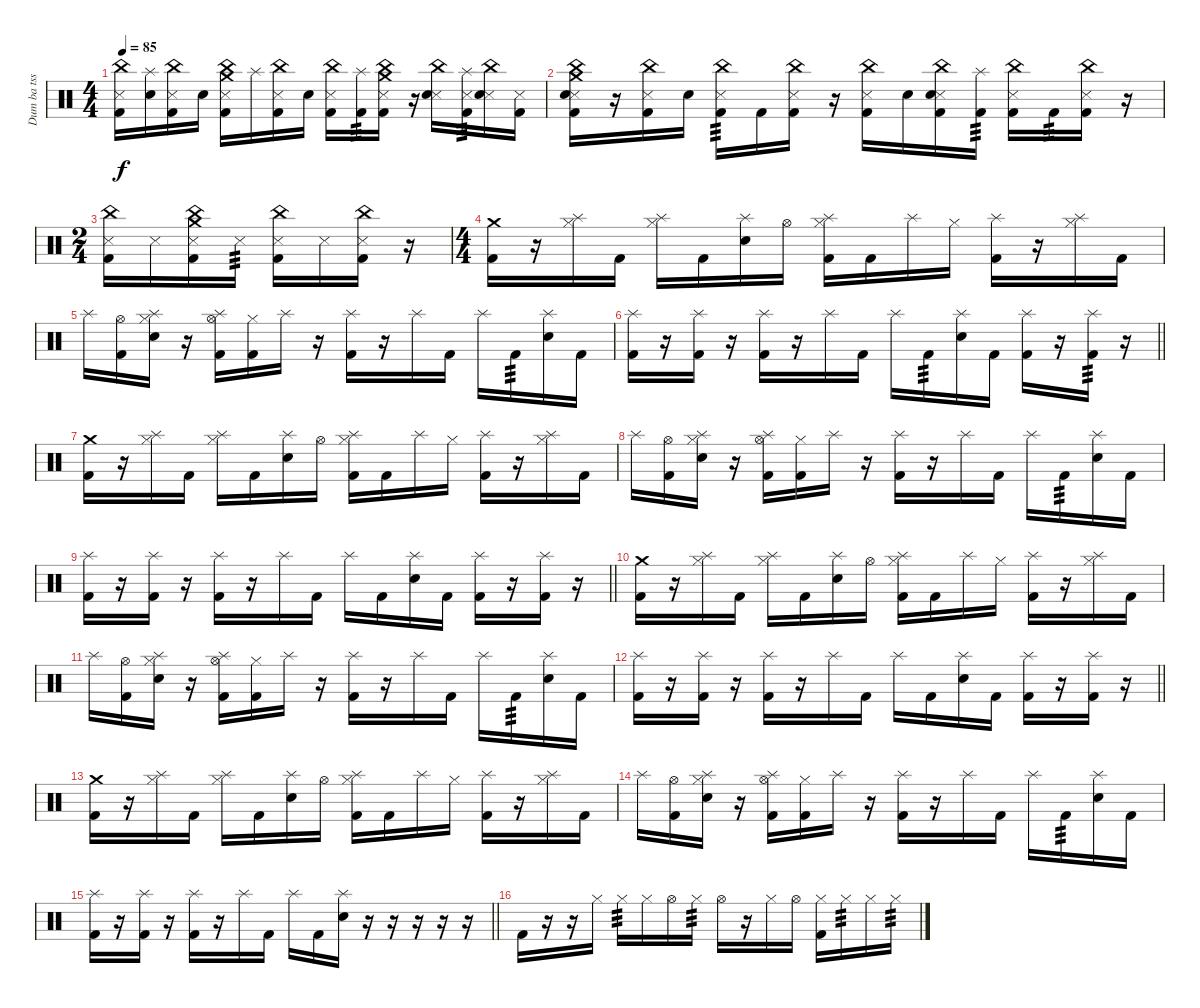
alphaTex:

\track ("Dum ba tss" "Dum ba tss") {instrument percussion}
\staff {score}
\articulation defaults
\ts (4 4)
\tempo 85
\clef neutral
\ks c
("China (hit)" "Snare (side stick) 3" "Kick (hit) 2").16{dy f} ("Splash (hit)" "Electric Snare (hit)").16 ("China (hit)" "Snare (side stick) 3" "Kick (hit) 2").16 "Electric Snare (hit)".16 ("Crash medium (hit)" "China (hit)" "Snare (side stick) 3" "Kick (hit) 2").16 "Splash (hit)".16 ("China (hit)" "Snare (side stick) 3" "Kick (hit) 2").16 "Electric Snare (hit)".16 ("China (hit)" "Snare (side stick) 3" "Kick (hit) 2").16 ("Splash (hit)" "Kick (hit) 2").16{tp 3} ("Crash medium (hit)" "China (hit)" "Snare (side stick) 3" "Kick (hit) 2").16 r.16 ("China (hit)" "Snare (side stick) 3" "Electric Snare (hit)").16 ("Splash (hit)" "Snare (side stick) 3" "Kick (hit) 2").16{tp 3} ("China (hit)" "Snare (side stick) 3" "Electric Snare (hit)").16 ("Snare (side stick) 3" "Kick (hit) 2").16 |
("Snare (side stick) 3" "China (hit)" "Crash medium (hit)" "Electric Snare (hit)" "Kick (hit) 2").16 r.16 ("Snare (side stick) 3" "China (hit)" "Kick (hit) 2").16 "Electric Snare (hit)".16 ("Snare (side stick) 3" "China (hit)" "Kick (hit) 2").16{tp 3} "Kick (hit) 2".16 ("Snare (side stick) 3" "China (hit)" "Kick (hit) 2").16 r.16 ("Snare (side stick) 3" "China (hit)" "Kick (hit) 2").16 "Electric Snare (hit)".16 ("Snare (side stick) 3" "China (hit)" "Electric Snare (hit)" "Kick (hit) 2").16 ("Splash (hit)" "Kick (hit) 2").16{tp 3} ("Snare (side stick) 3" "China (hit)" "Kick (hit) 2").16 "Kick (hit) 2".16{tp 3} ("Snare (side stick) 3" "China (hit)" "Kick (hit) 2").16 r.16 |
\ts (2 4)
("Snare (side stick) 3" "China (hit)" "Kick (hit) 2").16 "Snare (side stick) 3".16 ("Snare (side stick) 3" "China (hit)" "Crash medium (hit)" "Kick (hit) 2").16 "Snare (side stick) 3".16{tp 3} ("Snare (side stick) 3" "China (hit)" "Kick (hit) 2").16 "Snare (side stick) 3".16 ("Snare (side stick) 3" "China (hit)" "Kick (hit) 2").16 r.16 |
\ts (4 4)
("Crash medium (hit)" "Kick (hit) 2").16 r.16 ("Hi-Hat (closed)" "Splash (hit)").16 "Kick (hit) 2".16 ("Hi-Hat (closed)" "Splash (hit)").16 "Kick (hit) 2".16 ("Splash (hit)" "Electric Snare (hit)").16 "Hi-Hat (open)".16 ("Hi-Hat (closed)" "Splash (hit)" "Kick (hit) 2").16 "Kick (hit) 2".16 "Splash (hit)".16 "Hi-Hat (closed)".16 ("Splash (hit)" "Kick (hit) 2").16 r.16 ("Hi-Hat (closed)" "Splash (hit)").16 "Kick (hit) 2".16 |
"Splash (hit)".16 ("Hi-Hat (open)" "Kick (hit) 2").16 ("Hi-Hat (closed)" "Splash (hit)" "Electric Snare (hit)").16 r.16 ("Hi-Hat (open)" "Splash (hit)" "Kick (hit) 2").16 ("Hi-Hat (closed)" "Kick (hit) 2").16 "Splash (hit)".16 r.16 ("Splash (hit)" "Kick (hit) 2").16 r.16 "Splash (hit)".16 "Kick (hit) 2".16 "Splash (hit)".16 "Kick (hit) 2".16{tp 3} ("Splash (hit)" "Electric Snare (hit)").16 "Kick (hit) 2".16 |
\barLineRight lightlight
("Splash (hit)" "Kick (hit) 2").16 r.16 ("Splash (hit)" "Kick (hit) 2").16 r.16 ("Splash (hit)" "Kick (hit) 2").16 r.16 "Splash (hit)".16 "Kick (hit) 2".16 "Splash (hit)".16 "Kick (hit) 2".16{tp 3} ("Splash (hit)" "Electric Snare (hit)").16 "Kick (hit) 2".16 ("Splash (hit)" "Kick (hit) 2").16 r.16 ("Splash (hit)" "Kick (hit) 2").16{tp 3} r.16 |
\section ("" "")
("Crash medium (hit)" "Kick (hit) 2").16 r.16 ("Hi-Hat (closed)" "Splash (hit)").16 "Kick (hit) 2".16 ("Hi-Hat (closed)" "Splash (hit)").16 "Kick (hit) 2".16 ("Splash (hit)" "Electric Snare (hit)").16 "Hi-Hat (open)".16 ("Hi-Hat (closed)" "Splash (hit)" "Kick (hit) 2").16 "Kick (hit) 2".16 "Splash (hit)".16 "Hi-Hat (closed)".16 ("Splash (hit)" "Kick (hit) 2").16 r.16 ("Hi-Hat (closed)" "Splash (hit)").16 "Kick (hit) 2".16 |
"Splash (hit)".16 ("Hi-Hat (open)" "Kick (hit) 2").16 ("Hi-Hat (closed)" "Splash (hit)" "Electric Snare (hit)").16 r.16 ("Hi-Hat (open)" "Splash (hit)" "Kick (hit) 2").16 ("Hi-Hat (closed)" "Kick (hit) 2").16 "Splash (hit)".16 r.16 ("Splash (hit)" "Kick (hit) 2").16 r.16 "Splash (hit)".16 "Kick (hit) 2".16 "Splash (hit)".16 "Kick (hit) 2".16{tp 3} ("Splash (hit)" "Electric Snare (hit)").16 "Kick (hit) 2".16 |
\barLineRight lightlight
("Splash (hit)" "Kick (hit) 2").16 r.16 ("Splash (hit)" "Kick (hit) 2").16 r.16 ("Splash (hit)" "Kick (hit) 2").16 r.16 "Splash (hit)".16 "Kick (hit) 2".16 "Splash (hit)".16 "Kick (hit) 2".16 ("Splash (hit)" "Electric Snare (hit)").16 "Kick (hit) 2".16 ("Splash (hit)" "Kick (hit) 2").16 r.16 ("Splash (hit)" "Kick (hit) 2").16 r.16 |
\section ("" "")
("Crash medium (hit)" "Kick (hit) 2").16 r.16 ("Hi-Hat (closed)" "Splash (hit)").16 "Kick (hit) 2".16 ("Hi-Hat (closed)" "Splash (hit)").16 "Kick (hit) 2".16 ("Splash (hit)" "Electric Snare (hit)").16 "Hi-Hat (open)".16 ("Hi-Hat (closed)" "Splash (hit)" "Kick (hit) 2").16 "Kick (hit) 2".16 "Splash (hit)".16 "Hi-Hat (closed)".16 ("Splash (hit)" "Kick (hit) 2").16 r.16 ("Hi-Hat (closed)" "Splash (hit)").16 "Kick (hit) 2".16 |
"Splash (hit)".16 ("Hi-Hat (open)" "Kick (hit) 2").16 ("Hi-Hat (closed)" "Splash (hit)" "Electric Snare (hit)").16 r.16 ("Hi-Hat (open)" "Splash (hit)" "Kick (hit) 2").16 ("Hi-Hat (closed)" "Kick (hit) 2").16 "Splash (hit)".16 r.16 ("Splash (hit)" "Kick (hit) 2").16 r.16 "Splash (hit)".16 "Kick (hit) 2".16 "Splash (hit)".16 "Kick (hit) 2".16{tp 3} ("Splash (hit)" "Electric Snare (hit)").16 "Kick (hit) 2".16 |
\barLineRight lightlight
("Splash (hit)" "Kick (hit) 2").16 r.16 ("Splash (hit)" "Kick (hit) 2").16 r.16 ("Splash (hit)" "Kick (hit) 2").16 r.16 "Splash (hit)".16 "Kick (hit) 2".16 "Splash (hit)".16 "Kick (hit) 2".16 ("Splash (hit)" "Electric Snare (hit)").16 "Kick (hit) 2".16 ("Splash (hit)" "Kick (hit) 2").16 r.16 ("Splash (hit)" "Kick (hit) 2").16 r.16 |
("Crash medium (hit)" "Kick (hit) 2").16 r.16 ("Hi-Hat (closed)" "Splash (hit)").16 "Kick (hit) 2".16 ("Hi-Hat (closed)" "Splash (hit)").16 "Kick (hit) 2".16 ("Splash (hit)" "Electric Snare (hit)").16 "Hi-Hat (open)".16 ("Hi-Hat (closed)" "Splash (hit)" "Kick (hit) 2").16 "Kick (hit) 2".16 "Splash (hit)".16 "Hi-Hat (closed)".16 ("Splash (hit)" "Kick (hit) 2").16 r.16 ("Hi-Hat (closed)" "Splash (hit)").16 "Kick (hit) 2".16 |
"Splash (hit)".16 ("Hi-Hat (open)" "Kick (hit) 2").16 ("Hi-Hat (closed)" "Splash (hit)" "Electric Snare (hit)").16 r.16 ("Hi-Hat (open)" "Splash (hit)" "Kick (hit) 2").16 ("Hi-Hat (closed)" "Kick (hit) 2").16 "Splash (hit)".16 r.16 ("Splash (hit)" "Kick (hit) 2").16 r.16 "Splash (hit)".16 "Kick (hit) 2".16 "Splash (hit)".16 "Kick (hit) 2".16{tp 3} ("Splash (hit)" "Electric Snare (hit)").16 "Kick (hit) 2".16 |
\barLineRight lightlight
("Splash (hit)" "Kick (hit) 2").16 r.16 ("Splash (hit)" "Kick (hit) 2").16 r.16 ("Splash (hit)" "Kick (hit) 2").16 r.16 "Splash (hit)".16 "Kick (hit) 2".16 "Splash (hit)".16 "Kick (hit) 2".16 ("Splash (hit)" "Electric Snare (hit)").16 r.16 r.16 r.16 r.16 r.16 |
"Kick (hit) 2".16 r.16 r.16 "Hi-Hat (closed)".16 "Hi-Hat (closed)".16{tp 3} "Hi-Hat (closed)".16 "Hi-Hat (open)".16 "Hi-Hat (closed)".16{tp 3} "Hi-Hat (open)".16 r.16 "Hi-Hat (closed)".16 "Hi-Hat (open)".16 ("Hi-Hat (closed)" "Kick (hit) 2").16 "Hi-Hat (closed)".16{tp 3} "Hi-Hat (closed)".16 "Hi-Hat (closed)".16{tp 3}
